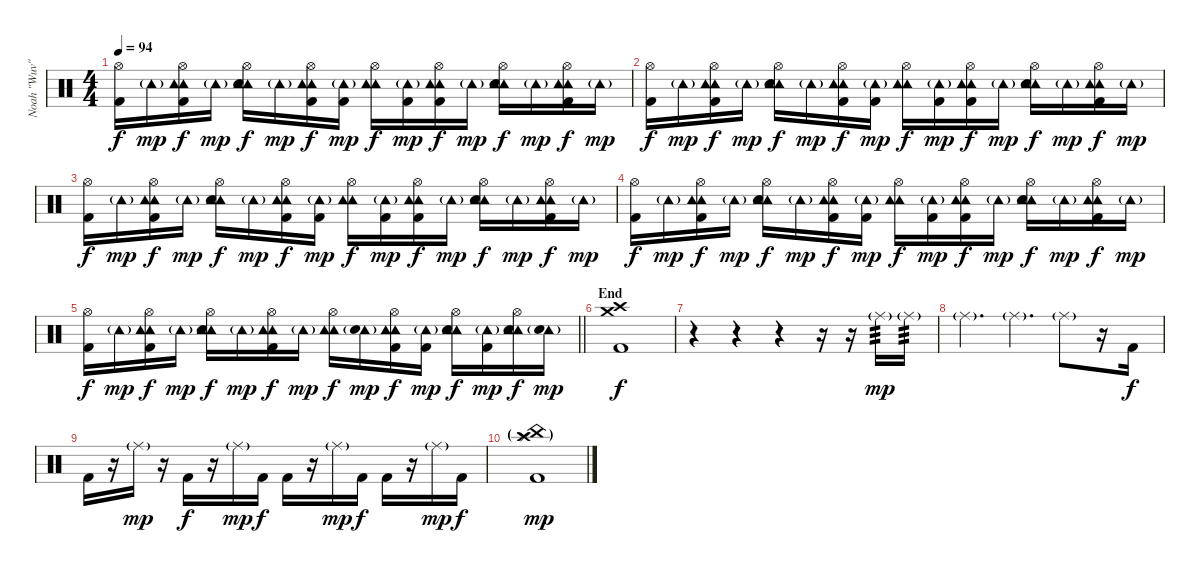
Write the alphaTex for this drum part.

\track ("Noah \"Wuv\" Bernardo" "Noah \"Wuv\"") {instrument percussion}
\staff {score}
\articulation defaults
\ts (4 4)
\tempo 94
\clef neutral
\ks c
("Hi-Hat (open)" "Kick (hit) 2").16{dy f} "Tambourine (hit)"{g}.16{dy mp} ("Hi-Hat (open)" "Tambourine (hit)" "Tambourine (hit)" "Kick (hit) 2").16{dy f} "Tambourine (hit)"{g}.16{dy mp} ("Hi-Hat (open)" "Tambourine (hit)" "Tambourine (hit)" "Electric Snare (hit)").16{dy f} "Tambourine (hit)"{g}.16{dy mp} ("Hi-Hat (open)" "Tambourine (hit)" "Tambourine (hit)" "Kick (hit) 2").16{dy f} ("Tambourine (hit)"{g} "Kick (hit) 2").16{dy mp} ("Hi-Hat (open)" "Tambourine (hit)" "Tambourine (hit)").16{dy f} ("Tambourine (hit)"{g} "Kick (hit) 2").16{dy mp} ("Hi-Hat (open)" "Tambourine (hit)" "Tambourine (hit)" "Kick (hit) 2").16{dy f} "Tambourine (hit)"{g}.16{dy mp} ("Hi-Hat (open)" "Tambourine (hit)" "Tambourine (hit)" "Electric Snare (hit)").16{dy f} "Tambourine (hit)"{g}.16{dy mp} ("Hi-Hat (open)" "Tambourine (hit)" "Tambourine (hit)" "Kick (hit) 2").16{dy f} "Tambourine (hit)"{g}.16{dy mp} |
("Hi-Hat (open)" "Kick (hit) 2").16{dy f} "Tambourine (hit)"{g}.16{dy mp} ("Hi-Hat (open)" "Tambourine (hit)" "Tambourine (hit)" "Kick (hit) 2").16{dy f} "Tambourine (hit)"{g}.16{dy mp} ("Hi-Hat (open)" "Tambourine (hit)" "Tambourine (hit)" "Electric Snare (hit)").16{dy f} "Tambourine (hit)"{g}.16{dy mp} ("Hi-Hat (open)" "Tambourine (hit)" "Tambourine (hit)" "Kick (hit) 2").16{dy f} ("Tambourine (hit)"{g} "Kick (hit) 2").16{dy mp} ("Hi-Hat (open)" "Tambourine (hit)" "Tambourine (hit)").16{dy f} ("Tambourine (hit)"{g} "Kick (hit) 2").16{dy mp} ("Hi-Hat (open)" "Tambourine (hit)" "Tambourine (hit)" "Kick (hit) 2").16{dy f} "Tambourine (hit)"{g}.16{dy mp} ("Hi-Hat (open)" "Tambourine (hit)" "Tambourine (hit)" "Electric Snare (hit)").16{dy f} "Tambourine (hit)"{g}.16{dy mp} ("Hi-Hat (open)" "Tambourine (hit)" "Tambourine (hit)" "Kick (hit) 2").16{dy f} "Tambourine (hit)"{g}.16{dy mp} |
("Hi-Hat (open)" "Kick (hit) 2").16{dy f} "Tambourine (hit)"{g}.16{dy mp} ("Hi-Hat (open)" "Tambourine (hit)" "Tambourine (hit)" "Kick (hit) 2").16{dy f} "Tambourine (hit)"{g}.16{dy mp} ("Hi-Hat (open)" "Tambourine (hit)" "Tambourine (hit)" "Electric Snare (hit)").16{dy f} "Tambourine (hit)"{g}.16{dy mp} ("Hi-Hat (open)" "Tambourine (hit)" "Tambourine (hit)" "Kick (hit) 2").16{dy f} ("Tambourine (hit)"{g} "Kick (hit) 2").16{dy mp} ("Hi-Hat (open)" "Tambourine (hit)" "Tambourine (hit)").16{dy f} ("Tambourine (hit)"{g} "Kick (hit) 2").16{dy mp} ("Hi-Hat (open)" "Tambourine (hit)" "Tambourine (hit)" "Kick (hit) 2").16{dy f} "Tambourine (hit)"{g}.16{dy mp} ("Hi-Hat (open)" "Tambourine (hit)" "Tambourine (hit)" "Electric Snare (hit)").16{dy f} "Tambourine (hit)"{g}.16{dy mp} ("Hi-Hat (open)" "Tambourine (hit)" "Tambourine (hit)" "Kick (hit) 2").16{dy f} "Tambourine (hit)"{g}.16{dy mp} |
("Hi-Hat (open)" "Kick (hit) 2").16{dy f} "Tambourine (hit)"{g}.16{dy mp} ("Hi-Hat (open)" "Tambourine (hit)" "Tambourine (hit)" "Kick (hit) 2").16{dy f} "Tambourine (hit)"{g}.16{dy mp} ("Hi-Hat (open)" "Tambourine (hit)" "Tambourine (hit)" "Electric Snare (hit)").16{dy f} "Tambourine (hit)"{g}.16{dy mp} ("Hi-Hat (open)" "Tambourine (hit)" "Tambourine (hit)" "Kick (hit) 2").16{dy f} ("Tambourine (hit)"{g} "Kick (hit) 2").16{dy mp} ("Hi-Hat (open)" "Tambourine (hit)" "Tambourine (hit)").16{dy f} ("Tambourine (hit)"{g} "Kick (hit) 2").16{dy mp} ("Hi-Hat (open)" "Tambourine (hit)" "Tambourine (hit)" "Kick (hit) 2").16{dy f} "Tambourine (hit)"{g}.16{dy mp} ("Hi-Hat (open)" "Tambourine (hit)" "Tambourine (hit)" "Electric Snare (hit)").16{dy f} "Tambourine (hit)"{g}.16{dy mp} ("Hi-Hat (open)" "Tambourine (hit)" "Tambourine (hit)" "Kick (hit) 2").16{dy f} "Tambourine (hit)"{g}.16{dy mp} |
\barLineRight lightlight
("Hi-Hat (open)" "Kick (hit) 2").16{dy f} "Tambourine (hit)"{g}.16{dy mp} ("Hi-Hat (open)" "Tambourine (hit)" "Tambourine (hit)" "Kick (hit) 2").16{dy f} "Tambourine (hit)"{g}.16{dy mp} ("Hi-Hat (open)" "Tambourine (hit)" "Tambourine (hit)" "Electric Snare (hit)").16{dy f} "Tambourine (hit)"{g}.16{dy mp} ("Hi-Hat (open)" "Tambourine (hit)" "Tambourine (hit)" "Kick (hit) 2").16{dy f} "Tambourine (hit)"{g}.16{dy mp} ("Hi-Hat (open)" "Tambourine (hit)" "Tambourine (hit)").16{dy f} ("Tambourine (hit)"{g} "Electric Snare (hit)").16{dy mp} ("Hi-Hat (open)" "Tambourine (hit)" "Tambourine (hit)" "Kick (hit) 2").16{dy f} ("Tambourine (hit)"{g} "Kick (hit) 2").16{dy mp} ("Hi-Hat (open)" "Tambourine (hit)" "Tambourine (hit)" "Electric Snare (hit)").16{dy f} ("Tambourine (hit)"{g} "Kick (hit) 2").16{dy mp} ("Hi-Hat (open)" "Tambourine (hit)" "Tambourine (hit)" "Electric Snare (hit)").16{dy f} ("Tambourine (hit)"{g} "Electric Snare (hit)").16{dy mp} |
\section ("" "End")
("Crash medium (hit)" "Crash high (hit)" "Kick (hit) 2").1{dy f} |
r.4 r.4 r.4 r.16 r.16 "Ride (middle)"{g}.16{tp 3 dy mp} "Ride (middle)"{g}.16{tp 3} |
"Ride (middle)"{g}.4{d} "Ride (middle)"{g}.4{d} "Ride (middle)"{g}.8 r.16 "Kick (hit) 2".16{dy f} |
"Kick (hit) 2".16 r.16 "Ride (middle)"{g}.16{dy mp} r.16 "Kick (hit) 2".16{dy f} r.16 "Ride (middle)"{g}.16{dy mp} "Kick (hit) 2".16{dy f} "Kick (hit) 2".16 r.16 "Ride (middle)"{g}.16{dy mp} "Kick (hit) 2".16{dy f} "Kick (hit) 2".16 r.16 "Ride (middle)"{g}.16{dy mp} "Kick (hit) 2".16{dy f} |
("China (hit)"{g} "Splash (hit)"{g} "Crash high (hit)"{g} "Kick (hit) 2").1{dy mp}
